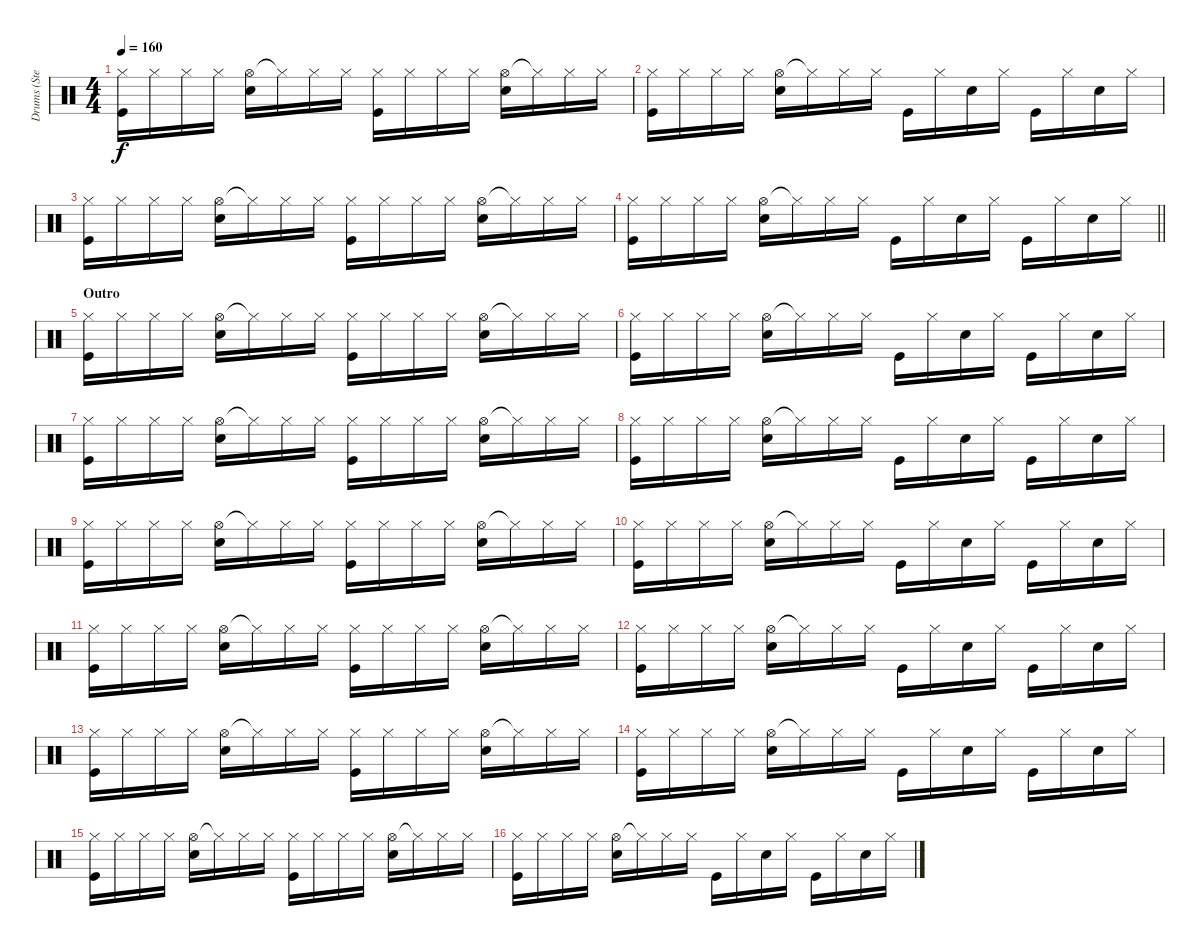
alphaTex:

\track ("Drums (Stephen Morris)" "Drums (Ste") {instrument percussion}
\staff {score}
\articulation defaults
\ts (4 4)
\tempo 160
\clef neutral
\ks c
("Hi-Hat (closed)" "Kick (hit)").16{dy f} "Hi-Hat (closed)".16 "Hi-Hat (closed)".16 "Hi-Hat (closed)".16 ("Hi-Hat (open)" "Electric Snare (hit)").16 "Hi-Hat (closed)"{t}.16 "Hi-Hat (closed)".16 "Hi-Hat (closed)".16 ("Hi-Hat (closed)" "Kick (hit)").16 "Hi-Hat (closed)".16 "Hi-Hat (closed)".16 "Hi-Hat (closed)".16 ("Hi-Hat (open)" "Electric Snare (hit)").16 "Hi-Hat (closed)"{t}.16 "Hi-Hat (closed)".16 "Hi-Hat (closed)".16 |
("Hi-Hat (closed)" "Kick (hit)").16 "Hi-Hat (closed)".16 "Hi-Hat (closed)".16 "Hi-Hat (closed)".16 ("Hi-Hat (open)" "Electric Snare (hit)").16 "Hi-Hat (closed)"{t}.16 "Hi-Hat (closed)".16 "Hi-Hat (closed)".16 "Kick (hit)".16 "Hi-Hat (closed)".16 "Electric Snare (hit)".16 "Hi-Hat (closed)".16 "Kick (hit)".16 "Hi-Hat (closed)".16 "Electric Snare (hit)".16 "Hi-Hat (closed)".16 |
("Hi-Hat (closed)" "Kick (hit)").16 "Hi-Hat (closed)".16 "Hi-Hat (closed)".16 "Hi-Hat (closed)".16 ("Hi-Hat (open)" "Electric Snare (hit)").16 "Hi-Hat (closed)"{t}.16 "Hi-Hat (closed)".16 "Hi-Hat (closed)".16 ("Hi-Hat (closed)" "Kick (hit)").16 "Hi-Hat (closed)".16 "Hi-Hat (closed)".16 "Hi-Hat (closed)".16 ("Hi-Hat (open)" "Electric Snare (hit)").16 "Hi-Hat (closed)"{t}.16 "Hi-Hat (closed)".16 "Hi-Hat (closed)".16 |
\barLineRight lightlight
("Hi-Hat (closed)" "Kick (hit)").16 "Hi-Hat (closed)".16 "Hi-Hat (closed)".16 "Hi-Hat (closed)".16 ("Hi-Hat (open)" "Electric Snare (hit)").16 "Hi-Hat (closed)"{t}.16 "Hi-Hat (closed)".16 "Hi-Hat (closed)".16 "Kick (hit)".16 "Hi-Hat (closed)".16 "Electric Snare (hit)".16 "Hi-Hat (closed)".16 "Kick (hit)".16 "Hi-Hat (closed)".16 "Electric Snare (hit)".16 "Hi-Hat (closed)".16 |
\section ("" "Outro")
("Hi-Hat (closed)" "Kick (hit)").16 "Hi-Hat (closed)".16 "Hi-Hat (closed)".16 "Hi-Hat (closed)".16 ("Hi-Hat (open)" "Electric Snare (hit)").16 "Hi-Hat (closed)"{t}.16 "Hi-Hat (closed)".16 "Hi-Hat (closed)".16 ("Hi-Hat (closed)" "Kick (hit)").16 "Hi-Hat (closed)".16 "Hi-Hat (closed)".16 "Hi-Hat (closed)".16 ("Hi-Hat (open)" "Electric Snare (hit)").16 "Hi-Hat (closed)"{t}.16 "Hi-Hat (closed)".16 "Hi-Hat (closed)".16 |
("Hi-Hat (closed)" "Kick (hit)").16 "Hi-Hat (closed)".16 "Hi-Hat (closed)".16 "Hi-Hat (closed)".16 ("Hi-Hat (open)" "Electric Snare (hit)").16 "Hi-Hat (closed)"{t}.16 "Hi-Hat (closed)".16 "Hi-Hat (closed)".16 "Kick (hit)".16 "Hi-Hat (closed)".16 "Electric Snare (hit)".16 "Hi-Hat (closed)".16 "Kick (hit)".16 "Hi-Hat (closed)".16 "Electric Snare (hit)".16 "Hi-Hat (closed)".16 |
("Hi-Hat (closed)" "Kick (hit)").16 "Hi-Hat (closed)".16 "Hi-Hat (closed)".16 "Hi-Hat (closed)".16 ("Hi-Hat (open)" "Electric Snare (hit)").16 "Hi-Hat (closed)"{t}.16 "Hi-Hat (closed)".16 "Hi-Hat (closed)".16 ("Hi-Hat (closed)" "Kick (hit)").16 "Hi-Hat (closed)".16 "Hi-Hat (closed)".16 "Hi-Hat (closed)".16 ("Hi-Hat (open)" "Electric Snare (hit)").16 "Hi-Hat (closed)"{t}.16 "Hi-Hat (closed)".16 "Hi-Hat (closed)".16 |
("Hi-Hat (closed)" "Kick (hit)").16 "Hi-Hat (closed)".16 "Hi-Hat (closed)".16 "Hi-Hat (closed)".16 ("Hi-Hat (open)" "Electric Snare (hit)").16 "Hi-Hat (closed)"{t}.16 "Hi-Hat (closed)".16 "Hi-Hat (closed)".16 "Kick (hit)".16 "Hi-Hat (closed)".16 "Electric Snare (hit)".16 "Hi-Hat (closed)".16 "Kick (hit)".16 "Hi-Hat (closed)".16 "Electric Snare (hit)".16 "Hi-Hat (closed)".16 |
("Hi-Hat (closed)" "Kick (hit)").16 "Hi-Hat (closed)".16 "Hi-Hat (closed)".16 "Hi-Hat (closed)".16 ("Hi-Hat (open)" "Electric Snare (hit)").16 "Hi-Hat (closed)"{t}.16 "Hi-Hat (closed)".16 "Hi-Hat (closed)".16 ("Hi-Hat (closed)" "Kick (hit)").16 "Hi-Hat (closed)".16 "Hi-Hat (closed)".16 "Hi-Hat (closed)".16 ("Hi-Hat (open)" "Electric Snare (hit)").16 "Hi-Hat (closed)"{t}.16 "Hi-Hat (closed)".16 "Hi-Hat (closed)".16 |
("Hi-Hat (closed)" "Kick (hit)").16 "Hi-Hat (closed)".16 "Hi-Hat (closed)".16 "Hi-Hat (closed)".16 ("Hi-Hat (open)" "Electric Snare (hit)").16 "Hi-Hat (closed)"{t}.16 "Hi-Hat (closed)".16 "Hi-Hat (closed)".16 "Kick (hit)".16 "Hi-Hat (closed)".16 "Electric Snare (hit)".16 "Hi-Hat (closed)".16 "Kick (hit)".16 "Hi-Hat (closed)".16 "Electric Snare (hit)".16 "Hi-Hat (closed)".16 |
("Hi-Hat (closed)" "Kick (hit)").16 "Hi-Hat (closed)".16 "Hi-Hat (closed)".16 "Hi-Hat (closed)".16 ("Hi-Hat (open)" "Electric Snare (hit)").16 "Hi-Hat (closed)"{t}.16 "Hi-Hat (closed)".16 "Hi-Hat (closed)".16 ("Hi-Hat (closed)" "Kick (hit)").16 "Hi-Hat (closed)".16 "Hi-Hat (closed)".16 "Hi-Hat (closed)".16 ("Hi-Hat (open)" "Electric Snare (hit)").16 "Hi-Hat (closed)"{t}.16 "Hi-Hat (closed)".16 "Hi-Hat (closed)".16 |
("Hi-Hat (closed)" "Kick (hit)").16 "Hi-Hat (closed)".16 "Hi-Hat (closed)".16 "Hi-Hat (closed)".16 ("Hi-Hat (open)" "Electric Snare (hit)").16 "Hi-Hat (closed)"{t}.16 "Hi-Hat (closed)".16 "Hi-Hat (closed)".16 "Kick (hit)".16 "Hi-Hat (closed)".16 "Electric Snare (hit)".16 "Hi-Hat (closed)".16 "Kick (hit)".16 "Hi-Hat (closed)".16 "Electric Snare (hit)".16 "Hi-Hat (closed)".16 |
("Hi-Hat (closed)" "Kick (hit)").16 "Hi-Hat (closed)".16 "Hi-Hat (closed)".16 "Hi-Hat (closed)".16 ("Hi-Hat (open)" "Electric Snare (hit)").16 "Hi-Hat (closed)"{t}.16 "Hi-Hat (closed)".16 "Hi-Hat (closed)".16 ("Hi-Hat (closed)" "Kick (hit)").16 "Hi-Hat (closed)".16 "Hi-Hat (closed)".16 "Hi-Hat (closed)".16 ("Hi-Hat (open)" "Electric Snare (hit)").16 "Hi-Hat (closed)"{t}.16 "Hi-Hat (closed)".16 "Hi-Hat (closed)".16 |
("Hi-Hat (closed)" "Kick (hit)").16 "Hi-Hat (closed)".16 "Hi-Hat (closed)".16 "Hi-Hat (closed)".16 ("Hi-Hat (open)" "Electric Snare (hit)").16 "Hi-Hat (closed)"{t}.16 "Hi-Hat (closed)".16 "Hi-Hat (closed)".16 "Kick (hit)".16 "Hi-Hat (closed)".16 "Electric Snare (hit)".16 "Hi-Hat (closed)".16 "Kick (hit)".16 "Hi-Hat (closed)".16 "Electric Snare (hit)".16 "Hi-Hat (closed)".16 |
("Hi-Hat (closed)" "Kick (hit)").16 "Hi-Hat (closed)".16 "Hi-Hat (closed)".16 "Hi-Hat (closed)".16 ("Hi-Hat (open)" "Electric Snare (hit)").16 "Hi-Hat (closed)"{t}.16 "Hi-Hat (closed)".16 "Hi-Hat (closed)".16 ("Hi-Hat (closed)" "Kick (hit)").16 "Hi-Hat (closed)".16 "Hi-Hat (closed)".16 "Hi-Hat (closed)".16 ("Hi-Hat (open)" "Electric Snare (hit)").16 "Hi-Hat (closed)"{t}.16 "Hi-Hat (closed)".16 "Hi-Hat (closed)".16 |
("Hi-Hat (closed)" "Kick (hit)").16 "Hi-Hat (closed)".16 "Hi-Hat (closed)".16 "Hi-Hat (closed)".16 ("Hi-Hat (open)" "Electric Snare (hit)").16 "Hi-Hat (closed)"{t}.16 "Hi-Hat (closed)".16 "Hi-Hat (closed)".16 "Kick (hit)".16 "Hi-Hat (closed)".16 "Electric Snare (hit)".16 "Hi-Hat (closed)".16 "Kick (hit)".16 "Hi-Hat (closed)".16 "Electric Snare (hit)".16 "Hi-Hat (closed)".16
